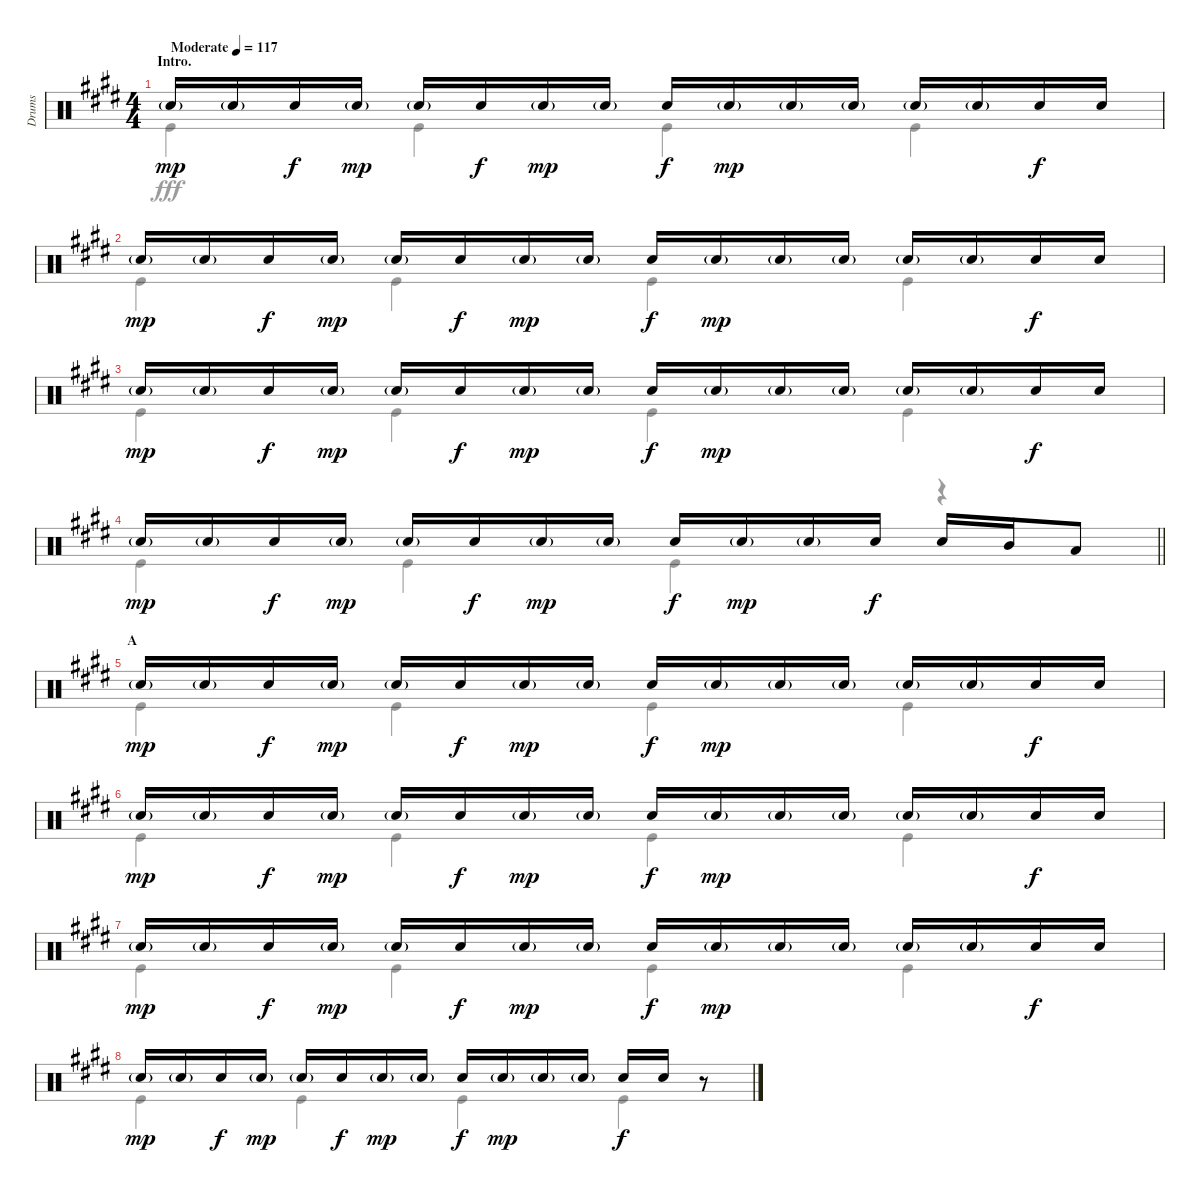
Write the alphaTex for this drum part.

\track ("Drums" "Drums") {instrument percussion}
\staff {score}
\articulation defaults
\voice
\ts (4 4)
\section ("" "Intro.")
\tempo (117 "Moderate")
\clef neutral
\ks e "Snare (hit) 2"{g}.16{dy mp} "Snare (hit) 2"{g}.16 "Snare (hit) 2".16{dy f} "Snare (hit) 2"{g}.16{dy mp} "Snare (hit) 2"{g}.16 "Snare (hit) 2".16{dy f} "Snare (hit) 2"{g}.16{dy mp} "Snare (hit) 2"{g}.16 "Snare (hit) 2".16{dy f} "Snare (hit) 2"{g}.16{dy mp} "Snare (hit) 2"{g}.16 "Snare (hit) 2"{g}.16 "Snare (hit) 2"{g}.16 "Snare (hit) 2"{g}.16 "Snare (hit) 2".16{dy f} "Snare (hit) 2".16
|
"Snare (hit) 2"{g}.16{dy mp} "Snare (hit) 2"{g}.16 "Snare (hit) 2".16{dy f} "Snare (hit) 2"{g}.16{dy mp} "Snare (hit) 2"{g}.16 "Snare (hit) 2".16{dy f} "Snare (hit) 2"{g}.16{dy mp} "Snare (hit) 2"{g}.16 "Snare (hit) 2".16{dy f} "Snare (hit) 2"{g}.16{dy mp} "Snare (hit) 2"{g}.16 "Snare (hit) 2"{g}.16 "Snare (hit) 2"{g}.16 "Snare (hit) 2"{g}.16 "Snare (hit) 2".16{dy f} "Snare (hit) 2".16 |
"Snare (hit) 2"{g}.16{dy mp} "Snare (hit) 2"{g}.16 "Snare (hit) 2".16{dy f} "Snare (hit) 2"{g}.16{dy mp} "Snare (hit) 2"{g}.16 "Snare (hit) 2".16{dy f} "Snare (hit) 2"{g}.16{dy mp} "Snare (hit) 2"{g}.16 "Snare (hit) 2".16{dy f} "Snare (hit) 2"{g}.16{dy mp} "Snare (hit) 2"{g}.16 "Snare (hit) 2"{g}.16 "Snare (hit) 2"{g}.16 "Snare (hit) 2"{g}.16 "Snare (hit) 2".16{dy f} "Snare (hit) 2".16 |
\barLineRight lightlight "Snare (hit) 2"{g}.16{dy mp} "Snare (hit) 2"{g}.16 "Snare (hit) 2".16{dy f} "Snare (hit) 2"{g}.16{dy mp} "Snare (hit) 2"{g}.16 "Snare (hit) 2".16{dy f} "Snare (hit) 2"{g}.16{dy mp} "Snare (hit) 2"{g}.16 "Snare (hit) 2".16{dy f} "Snare (hit) 2"{g}.16{dy mp} "Snare (hit) 2"{g}.16 "Snare (hit) 2".16{dy f} "Snare (hit) 2".16 "Mid Tom (hit)".16 "Low Tom (hit)".8
|
\section ("" "A")
"Snare (hit) 2"{g}.16{dy mp} "Snare (hit) 2"{g}.16 "Snare (hit) 2".16{dy f} "Snare (hit) 2"{g}.16{dy mp} "Snare (hit) 2"{g}.16 "Snare (hit) 2".16{dy f} "Snare (hit) 2"{g}.16{dy mp} "Snare (hit) 2"{g}.16 "Snare (hit) 2".16{dy f} "Snare (hit) 2"{g}.16{dy mp} "Snare (hit) 2"{g}.16 "Snare (hit) 2"{g}.16 "Snare (hit) 2"{g}.16 "Snare (hit) 2"{g}.16 "Snare (hit) 2".16{dy f} "Snare (hit) 2".16 |
"Snare (hit) 2"{g}.16{dy mp} "Snare (hit) 2"{g}.16 "Snare (hit) 2".16{dy f} "Snare (hit) 2"{g}.16{dy mp} "Snare (hit) 2"{g}.16 "Snare (hit) 2".16{dy f} "Snare (hit) 2"{g}.16{dy mp} "Snare (hit) 2"{g}.16 "Snare (hit) 2".16{dy f} "Snare (hit) 2"{g}.16{dy mp} "Snare (hit) 2"{g}.16 "Snare (hit) 2"{g}.16 "Snare (hit) 2"{g}.16 "Snare (hit) 2"{g}.16 "Snare (hit) 2".16{dy f} "Snare (hit) 2".16 |
"Snare (hit) 2"{g}.16{dy mp} "Snare (hit) 2"{g}.16 "Snare (hit) 2".16{dy f} "Snare (hit) 2"{g}.16{dy mp} "Snare (hit) 2"{g}.16 "Snare (hit) 2".16{dy f} "Snare (hit) 2"{g}.16{dy mp} "Snare (hit) 2"{g}.16 "Snare (hit) 2".16{dy f} "Snare (hit) 2"{g}.16{dy mp} "Snare (hit) 2"{g}.16 "Snare (hit) 2"{g}.16 "Snare (hit) 2"{g}.16 "Snare (hit) 2"{g}.16 "Snare (hit) 2".16{dy f} "Snare (hit) 2".16 |
"Snare (hit) 2"{g}.16{dy mp} "Snare (hit) 2"{g}.16 "Snare (hit) 2".16{dy f} "Snare (hit) 2"{g}.16{dy mp} "Snare (hit) 2"{g}.16 "Snare (hit) 2".16{dy f} "Snare (hit) 2"{g}.16{dy mp} "Snare (hit) 2"{g}.16 "Snare (hit) 2".16{dy f} "Snare (hit) 2"{g}.16{dy mp} "Snare (hit) 2"{g}.16 "Snare (hit) 2"{g}.16 "Snare (hit) 2".16{dy f} "Snare (hit) 2".16 r.8
\voice
\clef neutral
\ottava regular
\simile none
\ks e "Kick (hit)".4{dy fff} "Kick (hit)".4 "Kick (hit)".4 "Kick (hit)".4
|
"Kick (hit)".4 "Kick (hit)".4 "Kick (hit)".4 "Kick (hit)".4 |
"Kick (hit)".4 "Kick (hit)".4 "Kick (hit)".4 "Kick (hit)".4 |
\barLineRight lightlight "Kick (hit)".4 "Kick (hit)".4 "Kick (hit)".4
r.4 |
"Kick (hit)".4 "Kick (hit)".4 "Kick (hit)".4 "Kick (hit)".4 |
"Kick (hit)".4 "Kick (hit)".4 "Kick (hit)".4 "Kick (hit)".4 |
"Kick (hit)".4 "Kick (hit)".4 "Kick (hit)".4 "Kick (hit)".4 |
"Kick (hit)".4 "Kick (hit)".4 "Kick (hit)".4 "Kick (hit)".4
